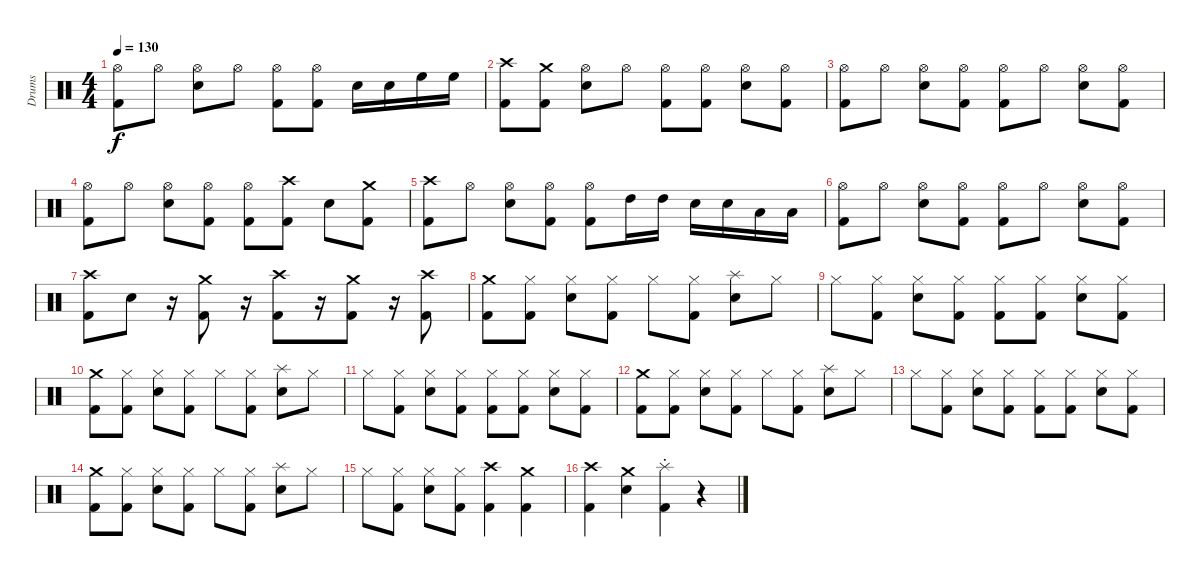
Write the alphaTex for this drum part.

\track ("Drums" "Drums") {instrument percussion}
\staff {score}
\articulation defaults
\ts (4 4)
\tempo 130
\clef neutral
\ks c
("Hi-Hat (open)" "Kick (hit) 2").8{dy f} "Hi-Hat (open)".8 ("Hi-Hat (open)" "Electric Snare (hit)").8 "Hi-Hat (open)".8 ("Hi-Hat (open)" "Kick (hit) 2").8 ("Hi-Hat (open)" "Kick (hit) 2").8 "Electric Snare (hit)".16 "Electric Snare (hit)".16 "High Floor Tom (hit)".16 "High Floor Tom (hit)".16 |
("Crash high (hit)" "Kick (hit) 2").8 ("Crash medium (hit)" "Kick (hit) 2").8 ("Hi-Hat (open)" "Electric Snare (hit)").8 "Hi-Hat (open)".8 ("Hi-Hat (open)" "Kick (hit) 2").8 ("Hi-Hat (open)" "Kick (hit) 2").8 ("Hi-Hat (open)" "Electric Snare (hit)").8 ("Hi-Hat (open)" "Kick (hit) 2").8 |
("Hi-Hat (open)" "Kick (hit) 2").8 "Hi-Hat (open)".8 ("Hi-Hat (open)" "Electric Snare (hit)").8 ("Hi-Hat (open)" "Kick (hit) 2").8 ("Hi-Hat (open)" "Kick (hit) 2").8 "Hi-Hat (open)".8 ("Hi-Hat (open)" "Electric Snare (hit)").8 ("Hi-Hat (open)" "Kick (hit) 2").8 |
("Hi-Hat (open)" "Kick (hit) 2").8 "Hi-Hat (open)".8 ("Hi-Hat (open)" "Electric Snare (hit)").8 ("Hi-Hat (open)" "Kick (hit) 2").8 ("Hi-Hat (open)" "Kick (hit) 2").8 ("Crash high (hit)" "Kick (hit) 2").8 "Electric Snare (hit)".8 ("Crash medium (hit)" "Kick (hit) 2").8 |
("Crash high (hit)" "Kick (hit) 2").8 "Hi-Hat (open)".8 ("Hi-Hat (open)" "Electric Snare (hit)").8 ("Hi-Hat (open)" "Kick (hit) 2").8 ("Hi-Hat (open)" "Kick (hit) 2").8 "High Tom (hit)".16 "High Tom (hit)".16 "Electric Snare (hit)".16 "Electric Snare (hit)".16 "Low Tom (hit)".16 "Low Tom (hit)".16 |
("Hi-Hat (open)" "Kick (hit) 2").8 "Hi-Hat (open)".8 ("Hi-Hat (open)" "Electric Snare (hit)").8 ("Hi-Hat (open)" "Kick (hit) 2").8 ("Hi-Hat (open)" "Kick (hit) 2").8 "Hi-Hat (open)".8 ("Hi-Hat (open)" "Electric Snare (hit)").8 ("Hi-Hat (open)" "Kick (hit) 2").8 |
("Crash high (hit)" "Kick (hit) 2").8 "Electric Snare (hit)".8 r.16 ("Crash medium (hit)" "Kick (hit) 2").8 r.16 ("Crash high (hit)" "Kick (hit) 2").8 r.16 ("Crash medium (hit)" "Kick (hit) 2").8 r.16 ("Crash high (hit)" "Kick (hit) 2").8 |
("Crash medium (hit)" "Kick (hit) 2").8 ("Hi-Hat (closed)" "Kick (hit) 2").8 ("Hi-Hat (closed)" "Electric Snare (hit)").8 ("Hi-Hat (closed)" "Kick (hit) 2").8 "Hi-Hat (closed)".8 ("Hi-Hat (closed)" "Kick (hit) 2").8 ("Splash (hit)" "Electric Snare (hit)").8 "Hi-Hat (closed)".8 |
"Hi-Hat (closed)".8 ("Hi-Hat (closed)" "Kick (hit) 2").8 ("Hi-Hat (closed)" "Electric Snare (hit)").8 ("Hi-Hat (closed)" "Kick (hit) 2").8 ("Hi-Hat (closed)" "Kick (hit) 2").8 ("Hi-Hat (closed)" "Kick (hit) 2").8 ("Hi-Hat (closed)" "Electric Snare (hit)").8 ("Hi-Hat (closed)" "Kick (hit) 2").8 |
("Crash medium (hit)" "Kick (hit) 2").8 ("Hi-Hat (closed)" "Kick (hit) 2").8 ("Hi-Hat (closed)" "Electric Snare (hit)").8 ("Hi-Hat (closed)" "Kick (hit) 2").8 "Hi-Hat (closed)".8 ("Hi-Hat (closed)" "Kick (hit) 2").8 ("Splash (hit)" "Electric Snare (hit)").8 "Hi-Hat (closed)".8 |
"Hi-Hat (closed)".8 ("Hi-Hat (closed)" "Kick (hit) 2").8 ("Hi-Hat (closed)" "Electric Snare (hit)").8 ("Hi-Hat (closed)" "Kick (hit) 2").8 ("Hi-Hat (closed)" "Kick (hit) 2").8 ("Hi-Hat (closed)" "Kick (hit) 2").8 ("Hi-Hat (closed)" "Electric Snare (hit)").8 ("Hi-Hat (closed)" "Kick (hit) 2").8 |
("Crash medium (hit)" "Kick (hit) 2").8 ("Hi-Hat (closed)" "Kick (hit) 2").8 ("Hi-Hat (closed)" "Electric Snare (hit)").8 ("Hi-Hat (closed)" "Kick (hit) 2").8 "Hi-Hat (closed)".8 ("Hi-Hat (closed)" "Kick (hit) 2").8 ("Splash (hit)" "Electric Snare (hit)").8 "Hi-Hat (closed)".8 |
"Hi-Hat (closed)".8 ("Hi-Hat (closed)" "Kick (hit) 2").8 ("Hi-Hat (closed)" "Electric Snare (hit)").8 ("Hi-Hat (closed)" "Kick (hit) 2").8 ("Hi-Hat (closed)" "Kick (hit) 2").8 ("Hi-Hat (closed)" "Kick (hit) 2").8 ("Hi-Hat (closed)" "Electric Snare (hit)").8 ("Hi-Hat (closed)" "Kick (hit) 2").8 |
("Crash medium (hit)" "Kick (hit) 2").8 ("Hi-Hat (closed)" "Kick (hit) 2").8 ("Hi-Hat (closed)" "Electric Snare (hit)").8 ("Hi-Hat (closed)" "Kick (hit) 2").8 "Hi-Hat (closed)".8 ("Hi-Hat (closed)" "Kick (hit) 2").8 ("Splash (hit)" "Electric Snare (hit)").8 "Hi-Hat (closed)".8 |
"Hi-Hat (closed)".8 ("Hi-Hat (closed)" "Kick (hit) 2").8 ("Hi-Hat (closed)" "Electric Snare (hit)").8 ("Hi-Hat (closed)" "Kick (hit) 2").8 ("Crash high (hit)" "Kick (hit) 2").4 ("Crash medium (hit)" "Kick (hit) 2").4 |
("Crash high (hit)" "Kick (hit) 2").4 ("Crash medium (hit)" "Electric Snare (hit)").4 ("Splash (hit)"{st} "Kick (hit) 2").4 r.4
